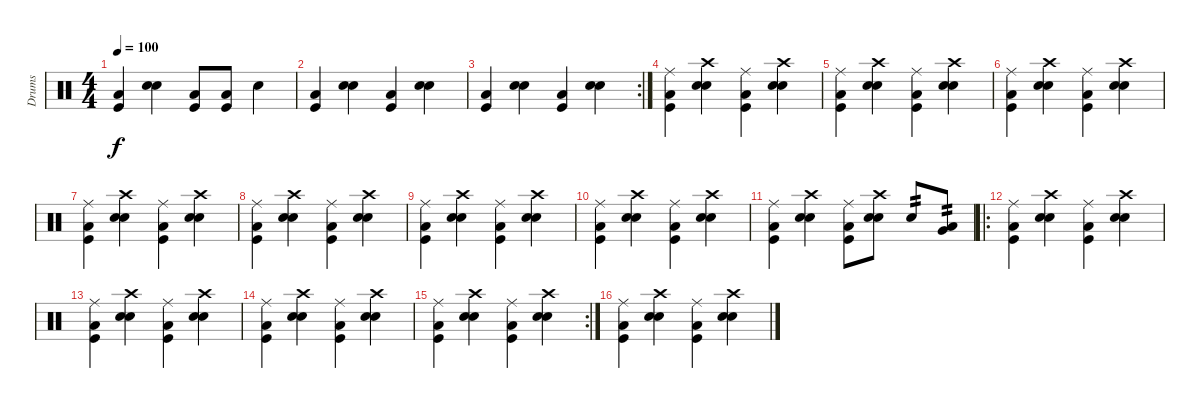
\track ("Drums" "Drums") {instrument percussion}
\staff {score}
\articulation defaults
\ts (4 4)
\tempo 100
\clef neutral
\ks c
("Kick (hit)" "Low Floor Tom (hit)").4{dy f} ("Snare (hit) 2" "Electric Snare (hit)").4 ("Kick (hit)" "Low Floor Tom (hit)").8 ("Kick (hit)" "Low Floor Tom (hit)").8 "Snare (hit) 2".4 |
("Kick (hit)" "Low Floor Tom (hit)").4 ("Snare (hit) 2" "Electric Snare (hit)").4 ("Kick (hit)" "Low Floor Tom (hit)").4 ("Snare (hit) 2" "Electric Snare (hit)").4 |
\rc 2
("Kick (hit)" "Low Floor Tom (hit)").4 ("Snare (hit) 2" "Electric Snare (hit)").4 ("Kick (hit)" "Low Floor Tom (hit)").4 ("Snare (hit) 2" "Electric Snare (hit)").4 |
("Ride (middle)" "Kick (hit)" "Low Floor Tom (hit)").4 ("Crash high (hit)" "Snare (hit) 2" "Electric Snare (hit)").4 ("Ride (middle)" "Kick (hit)" "Low Floor Tom (hit)").4 ("Crash high (hit)" "Snare (hit) 2" "Electric Snare (hit)").4 |
("Ride (middle)" "Kick (hit)" "Low Floor Tom (hit)").4 ("Crash high (hit)" "Snare (hit) 2" "Electric Snare (hit)").4 ("Ride (middle)" "Kick (hit)" "Low Floor Tom (hit)").4 ("Crash high (hit)" "Snare (hit) 2" "Electric Snare (hit)").4 |
("Ride (middle)" "Kick (hit)" "Low Floor Tom (hit)").4 ("Crash high (hit)" "Snare (hit) 2" "Electric Snare (hit)").4 ("Ride (middle)" "Kick (hit)" "Low Floor Tom (hit)").4 ("Crash high (hit)" "Snare (hit) 2" "Electric Snare (hit)").4 |
("Ride (middle)" "Kick (hit)" "Low Floor Tom (hit)").4 ("Crash high (hit)" "Snare (hit) 2" "Electric Snare (hit)").4 ("Ride (middle)" "Kick (hit)" "Low Floor Tom (hit)").4 ("Crash high (hit)" "Snare (hit) 2" "Electric Snare (hit)").4 |
("Ride (middle)" "Kick (hit)" "Low Floor Tom (hit)").4 ("Crash high (hit)" "Snare (hit) 2" "Electric Snare (hit)").4 ("Ride (middle)" "Kick (hit)" "Low Floor Tom (hit)").4 ("Crash high (hit)" "Snare (hit) 2" "Electric Snare (hit)").4 |
("Ride (middle)" "Kick (hit)" "Low Floor Tom (hit)").4 ("Crash high (hit)" "Snare (hit) 2" "Electric Snare (hit)").4 ("Ride (middle)" "Kick (hit)" "Low Floor Tom (hit)").4 ("Crash high (hit)" "Snare (hit) 2" "Electric Snare (hit)").4 |
("Ride (middle)" "Kick (hit)" "Low Floor Tom (hit)").4 ("Crash high (hit)" "Snare (hit) 2" "Electric Snare (hit)").4 ("Ride (middle)" "Kick (hit)" "Low Floor Tom (hit)").4 ("Crash high (hit)" "Snare (hit) 2" "Electric Snare (hit)").4 |
("Ride (middle)" "Kick (hit)" "Low Floor Tom (hit)").4 ("Crash high (hit)" "Snare (hit) 2" "Electric Snare (hit)").4 ("Ride (middle)" "Kick (hit)" "Low Floor Tom (hit)").8 ("Crash high (hit)" "Snare (hit) 2" "Electric Snare (hit)").8 "Snare (hit) 2".8{tp 2} ("Low Floor Tom (hit)" "Very Low Tom (hit)").8{tp 2} |
\ro
("Ride (middle)" "Kick (hit)" "Low Floor Tom (hit)").4 ("Crash high (hit)" "Snare (hit) 2" "Electric Snare (hit)").4 ("Ride (middle)" "Kick (hit)" "Low Floor Tom (hit)").4 ("Crash high (hit)" "Snare (hit) 2" "Electric Snare (hit)").4 |
("Ride (middle)" "Kick (hit)" "Low Floor Tom (hit)").4 ("Crash high (hit)" "Snare (hit) 2" "Electric Snare (hit)").4 ("Ride (middle)" "Kick (hit)" "Low Floor Tom (hit)").4 ("Crash high (hit)" "Snare (hit) 2" "Electric Snare (hit)").4 |
("Ride (middle)" "Kick (hit)" "Low Floor Tom (hit)").4 ("Crash high (hit)" "Snare (hit) 2" "Electric Snare (hit)").4 ("Ride (middle)" "Kick (hit)" "Low Floor Tom (hit)").4 ("Crash high (hit)" "Snare (hit) 2" "Electric Snare (hit)").4 |
\rc 2
("Ride (middle)" "Kick (hit)" "Low Floor Tom (hit)").4 ("Crash high (hit)" "Snare (hit) 2" "Electric Snare (hit)").4 ("Ride (middle)" "Kick (hit)" "Low Floor Tom (hit)").4 ("Crash high (hit)" "Snare (hit) 2" "Electric Snare (hit)").4 |
("Ride (middle)" "Kick (hit)" "Low Floor Tom (hit)").4 ("Crash high (hit)" "Snare (hit) 2" "Electric Snare (hit)").4 ("Ride (middle)" "Kick (hit)" "Low Floor Tom (hit)").4 ("Crash high (hit)" "Snare (hit) 2" "Electric Snare (hit)").4
